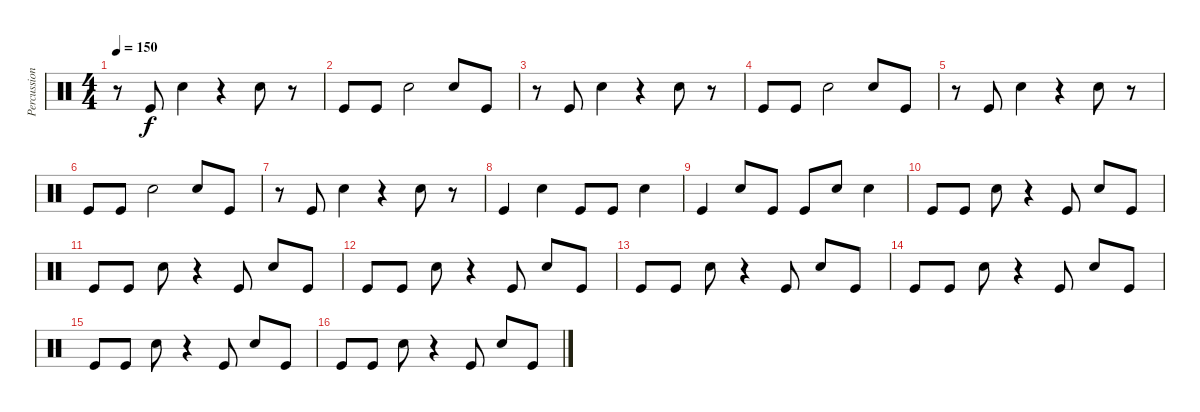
\track ("Percussion" "Percussion") {instrument percussion}
\staff {score}
\articulation defaults
\ts (4 4)
\tempo 150
\clef neutral
\ks c
r.8{dy f} "Kick (hit)".8 "Snare (hit) 2".4 r.4 "Snare (hit) 2".8 r.8 |
"Kick (hit)".8 "Kick (hit)".8 "Snare (hit) 2".2 "Snare (hit) 2".8 "Kick (hit)".8 |
r.8 "Kick (hit)".8 "Snare (hit) 2".4 r.4 "Snare (hit) 2".8 r.8 |
"Kick (hit)".8 "Kick (hit)".8 "Snare (hit) 2".2 "Snare (hit) 2".8 "Kick (hit)".8 |
r.8 "Kick (hit)".8 "Snare (hit) 2".4 r.4 "Snare (hit) 2".8 r.8 |
"Kick (hit)".8 "Kick (hit)".8 "Snare (hit) 2".2 "Snare (hit) 2".8 "Kick (hit)".8 |
r.8 "Kick (hit)".8 "Snare (hit) 2".4 r.4 "Snare (hit) 2".8 r.8 |
"Kick (hit)".4 "Snare (hit) 2".4 "Kick (hit)".8 "Kick (hit)".8 "Snare (hit) 2".4 |
"Kick (hit)".4 "Snare (hit) 2".8 "Kick (hit)".8 "Kick (hit)".8 "Snare (hit) 2".8 "Snare (hit) 2".4 |
"Kick (hit)".8 "Kick (hit)".8 "Snare (hit) 2".8 r.4 "Kick (hit)".8 "Snare (hit) 2".8 "Kick (hit)".8 |
"Kick (hit)".8 "Kick (hit)".8 "Snare (hit) 2".8 r.4 "Kick (hit)".8 "Snare (hit) 2".8 "Kick (hit)".8 |
"Kick (hit)".8 "Kick (hit)".8 "Snare (hit) 2".8 r.4 "Kick (hit)".8 "Snare (hit) 2".8 "Kick (hit)".8 |
"Kick (hit)".8 "Kick (hit)".8 "Snare (hit) 2".8 r.4 "Kick (hit)".8 "Snare (hit) 2".8 "Kick (hit)".8 |
"Kick (hit)".8 "Kick (hit)".8 "Snare (hit) 2".8 r.4 "Kick (hit)".8 "Snare (hit) 2".8 "Kick (hit)".8 |
"Kick (hit)".8 "Kick (hit)".8 "Snare (hit) 2".8 r.4 "Kick (hit)".8 "Snare (hit) 2".8 "Kick (hit)".8 |
"Kick (hit)".8 "Kick (hit)".8 "Snare (hit) 2".8 r.4 "Kick (hit)".8 "Snare (hit) 2".8 "Kick (hit)".8
